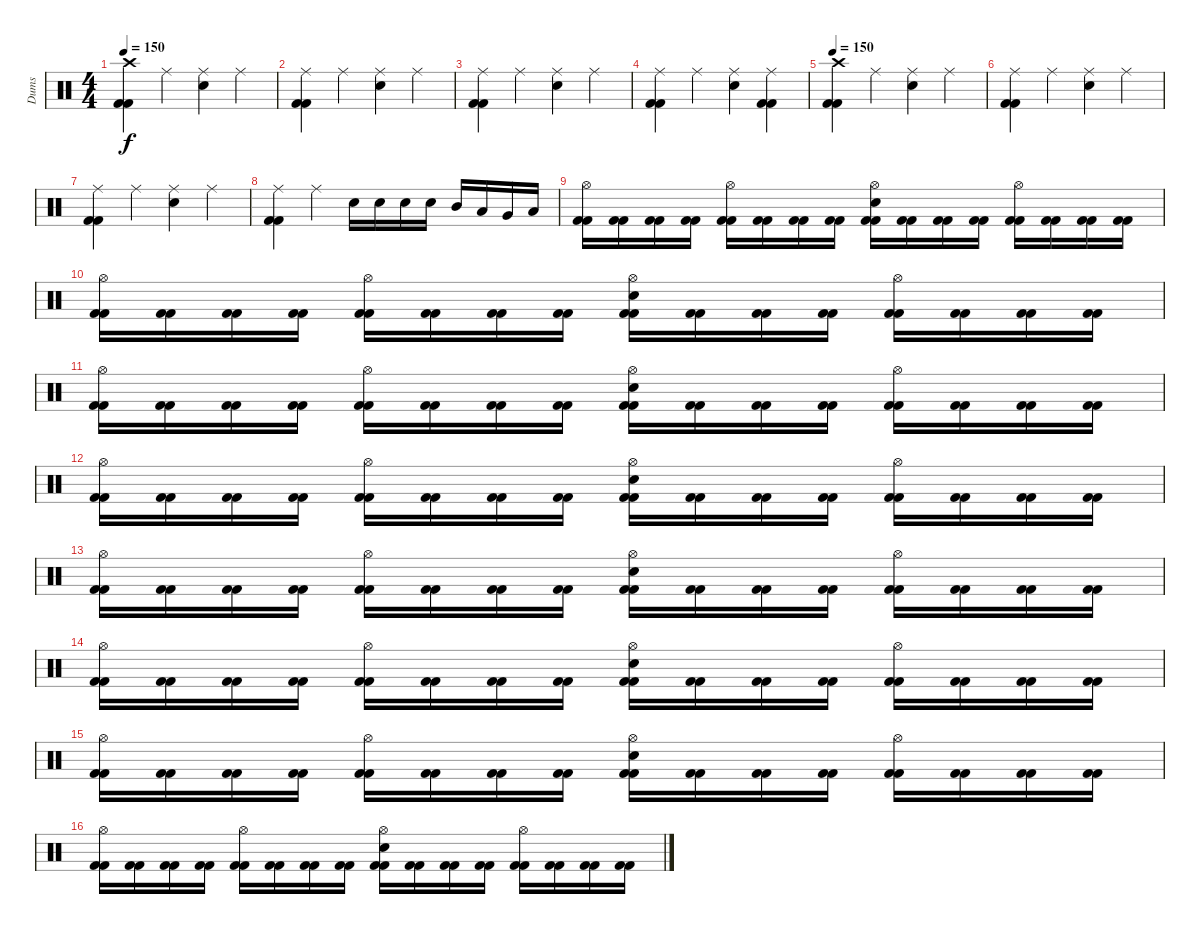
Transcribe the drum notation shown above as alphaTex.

\track ("Dums" "Dums") {instrument percussion}
\staff {score}
\articulation defaults
\ts (4 4)
\tempo 150
\clef neutral
\ks c
("Crash high (hit)" "Kick (hit) 2" "Kick (hit) 2").4{dy f} "Ride (middle)".4 ("Ride (middle)" "Electric Snare (hit)").4 "Ride (middle)".4 |
("Ride (middle)" "Kick (hit) 2" "Kick (hit) 2").4 "Ride (middle)".4 ("Ride (middle)" "Electric Snare (hit)").4 "Ride (middle)".4 |
("Ride (middle)" "Kick (hit) 2" "Kick (hit) 2").4 "Ride (middle)".4 ("Ride (middle)" "Electric Snare (hit)").4 "Ride (middle)".4 |
("Ride (middle)" "Kick (hit) 2" "Kick (hit) 2").4 "Ride (middle)".4 ("Ride (middle)" "Electric Snare (hit)").4 ("Ride (middle)" "Kick (hit) 2" "Kick (hit) 2").4 |
\tempo 150
("Crash high (hit)" "Kick (hit) 2" "Kick (hit) 2").4 "Ride (middle)".4 ("Ride (middle)" "Electric Snare (hit)").4 "Ride (middle)".4 |
("Ride (middle)" "Kick (hit) 2" "Kick (hit) 2").4 "Ride (middle)".4 ("Ride (middle)" "Electric Snare (hit)").4 "Ride (middle)".4 |
("Ride (middle)" "Kick (hit) 2" "Kick (hit) 2").4 "Ride (middle)".4 ("Ride (middle)" "Electric Snare (hit)").4 "Ride (middle)".4 |
("Ride (middle)" "Kick (hit) 2" "Kick (hit) 2").4 "Ride (middle)".4 "Electric Snare (hit)".16 "Electric Snare (hit)".16 "Electric Snare (hit)".16 "Electric Snare (hit)".16 "Mid Tom (hit)".16 "Low Tom (hit)".16 "Very Low Tom (hit)".16 "Low Floor Tom (hit)".16 |
("Hi-Hat (open)" "Kick (hit) 2" "Kick (hit) 2").16 ("Kick (hit) 2" "Kick (hit) 2").16 ("Kick (hit) 2" "Kick (hit) 2").16 ("Kick (hit) 2" "Kick (hit) 2").16 ("Hi-Hat (open)" "Kick (hit) 2" "Kick (hit) 2").16 ("Kick (hit) 2" "Kick (hit) 2").16 ("Kick (hit) 2" "Kick (hit) 2").16 ("Kick (hit) 2" "Kick (hit) 2").16 ("Hi-Hat (open)" "Electric Snare (hit)" "Kick (hit) 2" "Kick (hit) 2").16 ("Kick (hit) 2" "Kick (hit) 2").16 ("Kick (hit) 2" "Kick (hit) 2").16 ("Kick (hit) 2" "Kick (hit) 2").16 ("Hi-Hat (open)" "Kick (hit) 2" "Kick (hit) 2").16 ("Kick (hit) 2" "Kick (hit) 2").16 ("Kick (hit) 2" "Kick (hit) 2").16 ("Kick (hit) 2" "Kick (hit) 2").16 |
("Hi-Hat (open)" "Kick (hit) 2" "Kick (hit) 2").16 ("Kick (hit) 2" "Kick (hit) 2").16 ("Kick (hit) 2" "Kick (hit) 2").16 ("Kick (hit) 2" "Kick (hit) 2").16 ("Hi-Hat (open)" "Kick (hit) 2" "Kick (hit) 2").16 ("Kick (hit) 2" "Kick (hit) 2").16 ("Kick (hit) 2" "Kick (hit) 2").16 ("Kick (hit) 2" "Kick (hit) 2").16 ("Hi-Hat (open)" "Electric Snare (hit)" "Kick (hit) 2" "Kick (hit) 2").16 ("Kick (hit) 2" "Kick (hit) 2").16 ("Kick (hit) 2" "Kick (hit) 2").16 ("Kick (hit) 2" "Kick (hit) 2").16 ("Hi-Hat (open)" "Kick (hit) 2" "Kick (hit) 2").16 ("Kick (hit) 2" "Kick (hit) 2").16 ("Kick (hit) 2" "Kick (hit) 2").16 ("Kick (hit) 2" "Kick (hit) 2").16 |
("Hi-Hat (open)" "Kick (hit) 2" "Kick (hit) 2").16 ("Kick (hit) 2" "Kick (hit) 2").16 ("Kick (hit) 2" "Kick (hit) 2").16 ("Kick (hit) 2" "Kick (hit) 2").16 ("Hi-Hat (open)" "Kick (hit) 2" "Kick (hit) 2").16 ("Kick (hit) 2" "Kick (hit) 2").16 ("Kick (hit) 2" "Kick (hit) 2").16 ("Kick (hit) 2" "Kick (hit) 2").16 ("Hi-Hat (open)" "Electric Snare (hit)" "Kick (hit) 2" "Kick (hit) 2").16 ("Kick (hit) 2" "Kick (hit) 2").16 ("Kick (hit) 2" "Kick (hit) 2").16 ("Kick (hit) 2" "Kick (hit) 2").16 ("Hi-Hat (open)" "Kick (hit) 2" "Kick (hit) 2").16 ("Kick (hit) 2" "Kick (hit) 2").16 ("Kick (hit) 2" "Kick (hit) 2").16 ("Kick (hit) 2" "Kick (hit) 2").16 |
("Hi-Hat (open)" "Kick (hit) 2" "Kick (hit) 2").16 ("Kick (hit) 2" "Kick (hit) 2").16 ("Kick (hit) 2" "Kick (hit) 2").16 ("Kick (hit) 2" "Kick (hit) 2").16 ("Hi-Hat (open)" "Kick (hit) 2" "Kick (hit) 2").16 ("Kick (hit) 2" "Kick (hit) 2").16 ("Kick (hit) 2" "Kick (hit) 2").16 ("Kick (hit) 2" "Kick (hit) 2").16 ("Hi-Hat (open)" "Electric Snare (hit)" "Kick (hit) 2" "Kick (hit) 2").16 ("Kick (hit) 2" "Kick (hit) 2").16 ("Kick (hit) 2" "Kick (hit) 2").16 ("Kick (hit) 2" "Kick (hit) 2").16 ("Hi-Hat (open)" "Kick (hit) 2" "Kick (hit) 2").16 ("Kick (hit) 2" "Kick (hit) 2").16 ("Kick (hit) 2" "Kick (hit) 2").16 ("Kick (hit) 2" "Kick (hit) 2").16 |
("Hi-Hat (open)" "Kick (hit) 2" "Kick (hit) 2").16 ("Kick (hit) 2" "Kick (hit) 2").16 ("Kick (hit) 2" "Kick (hit) 2").16 ("Kick (hit) 2" "Kick (hit) 2").16 ("Hi-Hat (open)" "Kick (hit) 2" "Kick (hit) 2").16 ("Kick (hit) 2" "Kick (hit) 2").16 ("Kick (hit) 2" "Kick (hit) 2").16 ("Kick (hit) 2" "Kick (hit) 2").16 ("Hi-Hat (open)" "Electric Snare (hit)" "Kick (hit) 2" "Kick (hit) 2").16 ("Kick (hit) 2" "Kick (hit) 2").16 ("Kick (hit) 2" "Kick (hit) 2").16 ("Kick (hit) 2" "Kick (hit) 2").16 ("Hi-Hat (open)" "Kick (hit) 2" "Kick (hit) 2").16 ("Kick (hit) 2" "Kick (hit) 2").16 ("Kick (hit) 2" "Kick (hit) 2").16 ("Kick (hit) 2" "Kick (hit) 2").16 |
("Hi-Hat (open)" "Kick (hit) 2" "Kick (hit) 2").16 ("Kick (hit) 2" "Kick (hit) 2").16 ("Kick (hit) 2" "Kick (hit) 2").16 ("Kick (hit) 2" "Kick (hit) 2").16 ("Hi-Hat (open)" "Kick (hit) 2" "Kick (hit) 2").16 ("Kick (hit) 2" "Kick (hit) 2").16 ("Kick (hit) 2" "Kick (hit) 2").16 ("Kick (hit) 2" "Kick (hit) 2").16 ("Hi-Hat (open)" "Electric Snare (hit)" "Kick (hit) 2" "Kick (hit) 2").16 ("Kick (hit) 2" "Kick (hit) 2").16 ("Kick (hit) 2" "Kick (hit) 2").16 ("Kick (hit) 2" "Kick (hit) 2").16 ("Hi-Hat (open)" "Kick (hit) 2" "Kick (hit) 2").16 ("Kick (hit) 2" "Kick (hit) 2").16 ("Kick (hit) 2" "Kick (hit) 2").16 ("Kick (hit) 2" "Kick (hit) 2").16 |
("Hi-Hat (open)" "Kick (hit) 2" "Kick (hit) 2").16 ("Kick (hit) 2" "Kick (hit) 2").16 ("Kick (hit) 2" "Kick (hit) 2").16 ("Kick (hit) 2" "Kick (hit) 2").16 ("Hi-Hat (open)" "Kick (hit) 2" "Kick (hit) 2").16 ("Kick (hit) 2" "Kick (hit) 2").16 ("Kick (hit) 2" "Kick (hit) 2").16 ("Kick (hit) 2" "Kick (hit) 2").16 ("Hi-Hat (open)" "Electric Snare (hit)" "Kick (hit) 2" "Kick (hit) 2").16 ("Kick (hit) 2" "Kick (hit) 2").16 ("Kick (hit) 2" "Kick (hit) 2").16 ("Kick (hit) 2" "Kick (hit) 2").16 ("Hi-Hat (open)" "Kick (hit) 2" "Kick (hit) 2").16 ("Kick (hit) 2" "Kick (hit) 2").16 ("Kick (hit) 2" "Kick (hit) 2").16 ("Kick (hit) 2" "Kick (hit) 2").16 |
("Hi-Hat (open)" "Kick (hit) 2" "Kick (hit) 2").16 ("Kick (hit) 2" "Kick (hit) 2").16 ("Kick (hit) 2" "Kick (hit) 2").16 ("Kick (hit) 2" "Kick (hit) 2").16 ("Hi-Hat (open)" "Kick (hit) 2" "Kick (hit) 2").16 ("Kick (hit) 2" "Kick (hit) 2").16 ("Kick (hit) 2" "Kick (hit) 2").16 ("Kick (hit) 2" "Kick (hit) 2").16 ("Hi-Hat (open)" "Electric Snare (hit)" "Kick (hit) 2" "Kick (hit) 2").16 ("Kick (hit) 2" "Kick (hit) 2").16 ("Kick (hit) 2" "Kick (hit) 2").16 ("Kick (hit) 2" "Kick (hit) 2").16 ("Hi-Hat (open)" "Kick (hit) 2" "Kick (hit) 2").16 ("Kick (hit) 2" "Kick (hit) 2").16 ("Kick (hit) 2" "Kick (hit) 2").16 ("Kick (hit) 2" "Kick (hit) 2").16
